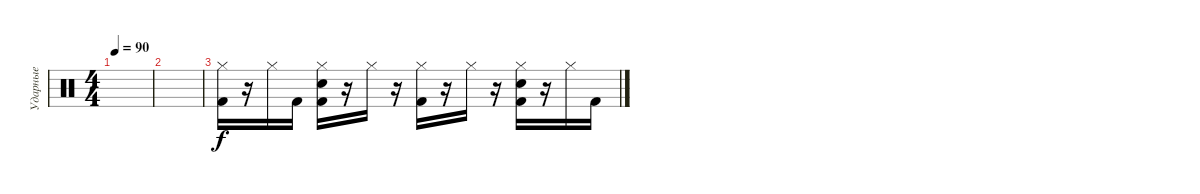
\track ("Ударные" "Ударные") {instrument percussion}
\staff {score}
\articulation defaults
\ts (4 4)
\tempo 90
\clef neutral
\ks c
|
|
("Hi-Hat (closed)" "Kick (hit) 2").16 r.16 "Hi-Hat (closed)".16 "Kick (hit) 2".16 ("Hi-Hat (closed)" "Electric Snare (hit)" "Kick (hit) 2").16 r.16 "Hi-Hat (closed)".16 r.16 ("Hi-Hat (closed)" "Kick (hit) 2").16 r.16 "Hi-Hat (closed)".16 r.16 ("Hi-Hat (closed)" "Electric Snare (hit)" "Kick (hit) 2").16 r.16 "Hi-Hat (closed)".16 "Kick (hit) 2".16
